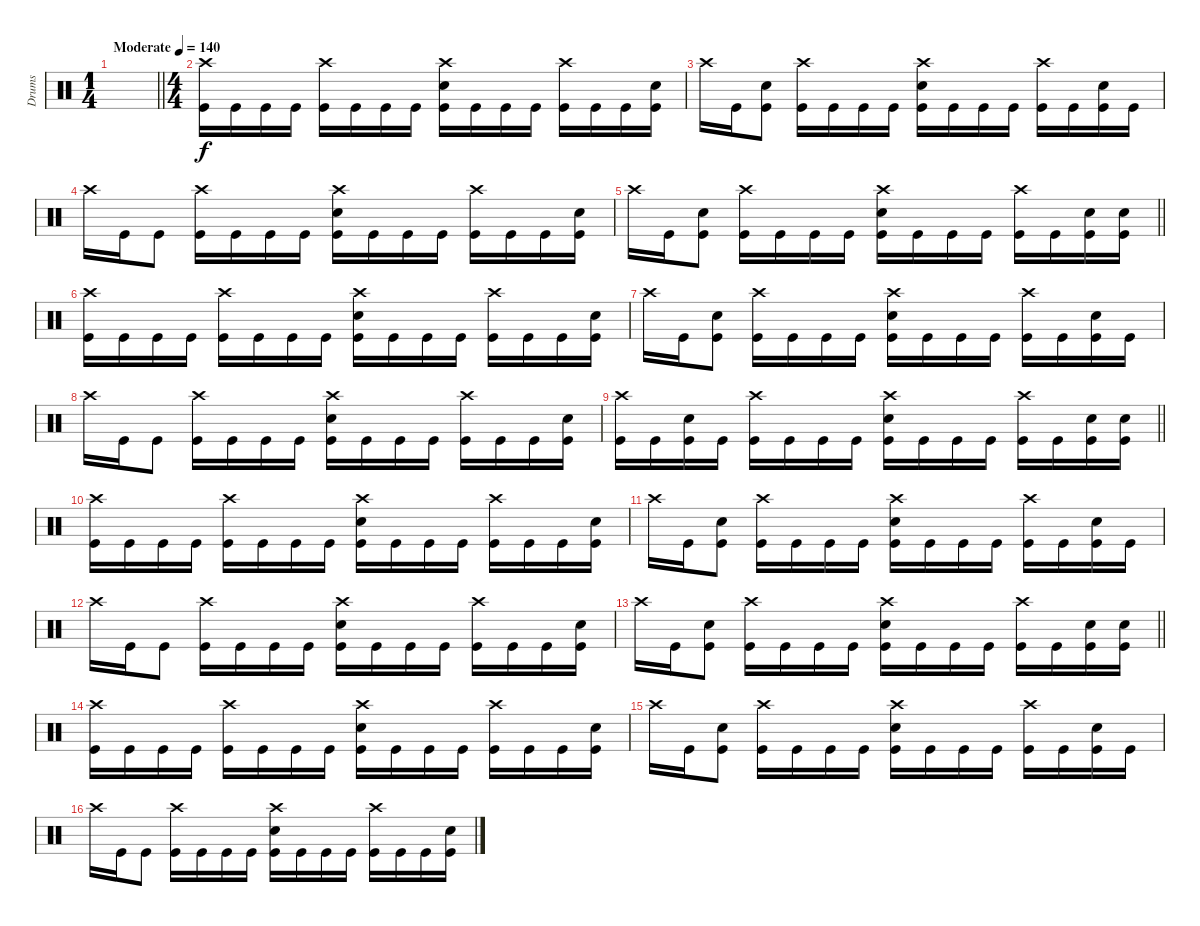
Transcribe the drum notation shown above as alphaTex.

\track ("Drums" "Drums") {instrument percussion}
\staff
\articulation defaults
\ts (1 4)
\tempo (140 "Moderate")
\clef neutral
\barLineRight lightlight
\ks c
|
\ts (4 4)
("Crash high (hit)" "Kick (hit)").16 "Kick (hit)".16 "Kick (hit)".16 "Kick (hit)".16 ("Crash high (hit)" "Kick (hit)").16 "Kick (hit)".16 "Kick (hit)".16 "Kick (hit)".16 ("Crash high (hit)" "Electric Snare (hit)" "Kick (hit)").16 "Kick (hit)".16 "Kick (hit)".16 "Kick (hit)".16 ("Crash high (hit)" "Kick (hit)").16 "Kick (hit)".16 "Kick (hit)".16 ("Electric Snare (hit)" "Kick (hit)").16 |
"Crash high (hit)".16 "Kick (hit)".16 ("Electric Snare (hit)" "Kick (hit)").8 ("Crash high (hit)" "Kick (hit)").16 "Kick (hit)".16 "Kick (hit)".16 "Kick (hit)".16 ("Crash high (hit)" "Electric Snare (hit)" "Kick (hit)").16 "Kick (hit)".16 "Kick (hit)".16 "Kick (hit)".16 ("Crash high (hit)" "Kick (hit)").16 "Kick (hit)".16 ("Electric Snare (hit)" "Kick (hit)").16 "Kick (hit)".16 |
"Crash high (hit)".16 "Kick (hit)".16 "Kick (hit)".8 ("Crash high (hit)" "Kick (hit)").16 "Kick (hit)".16 "Kick (hit)".16 "Kick (hit)".16 ("Crash high (hit)" "Electric Snare (hit)" "Kick (hit)").16 "Kick (hit)".16 "Kick (hit)".16 "Kick (hit)".16 ("Crash high (hit)" "Kick (hit)").16 "Kick (hit)".16 "Kick (hit)".16 ("Electric Snare (hit)" "Kick (hit)").16 |
\barLineRight lightlight "Crash high (hit)".16 "Kick (hit)".16
("Electric Snare (hit)" "Kick (hit)").8 ("Crash high (hit)" "Kick (hit)").16 "Kick (hit)".16 "Kick (hit)".16 "Kick (hit)".16 ("Crash high (hit)" "Electric Snare (hit)" "Kick (hit)").16 "Kick (hit)".16 "Kick (hit)".16 "Kick (hit)".16 ("Crash high (hit)" "Kick (hit)").16 "Kick (hit)".16 ("Electric Snare (hit)" "Kick (hit)").16 ("Electric Snare (hit)" "Kick (hit)").16 |
("Crash high (hit)" "Kick (hit)").16 "Kick (hit)".16 "Kick (hit)".16 "Kick (hit)".16 ("Crash high (hit)" "Kick (hit)").16 "Kick (hit)".16 "Kick (hit)".16 "Kick (hit)".16 ("Crash high (hit)" "Electric Snare (hit)" "Kick (hit)").16 "Kick (hit)".16 "Kick (hit)".16 "Kick (hit)".16 ("Crash high (hit)" "Kick (hit)").16 "Kick (hit)".16 "Kick (hit)".16 ("Electric Snare (hit)" "Kick (hit)").16 |
"Crash high (hit)".16 "Kick (hit)".16 ("Electric Snare (hit)" "Kick (hit)").8 ("Crash high (hit)" "Kick (hit)").16 "Kick (hit)".16 "Kick (hit)".16 "Kick (hit)".16 ("Crash high (hit)" "Electric Snare (hit)" "Kick (hit)").16 "Kick (hit)".16 "Kick (hit)".16 "Kick (hit)".16 ("Crash high (hit)" "Kick (hit)").16 "Kick (hit)".16 ("Electric Snare (hit)" "Kick (hit)").16 "Kick (hit)".16 |
"Crash high (hit)".16 "Kick (hit)".16 "Kick (hit)".8 ("Crash high (hit)" "Kick (hit)").16 "Kick (hit)".16 "Kick (hit)".16 "Kick (hit)".16 ("Crash high (hit)" "Electric Snare (hit)" "Kick (hit)").16 "Kick (hit)".16 "Kick (hit)".16 "Kick (hit)".16 ("Crash high (hit)" "Kick (hit)").16 "Kick (hit)".16 "Kick (hit)".16 ("Electric Snare (hit)" "Kick (hit)").16 |
\barLineRight lightlight
("Crash high (hit)" "Kick (hit)").16 "Kick (hit)".16 ("Electric Snare (hit)" "Kick (hit)").16 "Kick (hit)".16 ("Crash high (hit)" "Kick (hit)").16 "Kick (hit)".16 "Kick (hit)".16 "Kick (hit)".16 ("Crash high (hit)" "Electric Snare (hit)" "Kick (hit)").16 "Kick (hit)".16 "Kick (hit)".16 "Kick (hit)".16 ("Crash high (hit)" "Kick (hit)").16 "Kick (hit)".16 ("Electric Snare (hit)" "Kick (hit)").16 ("Electric Snare (hit)" "Kick (hit)").16 |
("Crash high (hit)" "Kick (hit)").16 "Kick (hit)".16 "Kick (hit)".16 "Kick (hit)".16 ("Crash high (hit)" "Kick (hit)").16 "Kick (hit)".16 "Kick (hit)".16 "Kick (hit)".16 ("Crash high (hit)" "Electric Snare (hit)" "Kick (hit)").16 "Kick (hit)".16 "Kick (hit)".16 "Kick (hit)".16 ("Crash high (hit)" "Kick (hit)").16 "Kick (hit)".16 "Kick (hit)".16 ("Electric Snare (hit)" "Kick (hit)").16 |
"Crash high (hit)".16 "Kick (hit)".16 ("Electric Snare (hit)" "Kick (hit)").8 ("Crash high (hit)" "Kick (hit)").16 "Kick (hit)".16 "Kick (hit)".16 "Kick (hit)".16 ("Crash high (hit)" "Electric Snare (hit)" "Kick (hit)").16 "Kick (hit)".16 "Kick (hit)".16 "Kick (hit)".16 ("Crash high (hit)" "Kick (hit)").16 "Kick (hit)".16 ("Electric Snare (hit)" "Kick (hit)").16 "Kick (hit)".16 |
"Crash high (hit)".16 "Kick (hit)".16 "Kick (hit)".8 ("Crash high (hit)" "Kick (hit)").16 "Kick (hit)".16 "Kick (hit)".16 "Kick (hit)".16 ("Crash high (hit)" "Electric Snare (hit)" "Kick (hit)").16 "Kick (hit)".16 "Kick (hit)".16 "Kick (hit)".16 ("Crash high (hit)" "Kick (hit)").16 "Kick (hit)".16 "Kick (hit)".16 ("Electric Snare (hit)" "Kick (hit)").16 |
\barLineRight lightlight "Crash high (hit)".16 "Kick (hit)".16
("Electric Snare (hit)" "Kick (hit)").8 ("Crash high (hit)" "Kick (hit)").16 "Kick (hit)".16 "Kick (hit)".16 "Kick (hit)".16 ("Crash high (hit)" "Electric Snare (hit)" "Kick (hit)").16 "Kick (hit)".16 "Kick (hit)".16 "Kick (hit)".16 ("Crash high (hit)" "Kick (hit)").16 "Kick (hit)".16 ("Electric Snare (hit)" "Kick (hit)").16 ("Electric Snare (hit)" "Kick (hit)").16 |
("Crash high (hit)" "Kick (hit)").16 "Kick (hit)".16 "Kick (hit)".16 "Kick (hit)".16 ("Crash high (hit)" "Kick (hit)").16 "Kick (hit)".16 "Kick (hit)".16 "Kick (hit)".16 ("Crash high (hit)" "Electric Snare (hit)" "Kick (hit)").16 "Kick (hit)".16 "Kick (hit)".16 "Kick (hit)".16 ("Crash high (hit)" "Kick (hit)").16 "Kick (hit)".16 "Kick (hit)".16 ("Electric Snare (hit)" "Kick (hit)").16 |
"Crash high (hit)".16 "Kick (hit)".16 ("Electric Snare (hit)" "Kick (hit)").8 ("Crash high (hit)" "Kick (hit)").16 "Kick (hit)".16 "Kick (hit)".16 "Kick (hit)".16 ("Crash high (hit)" "Electric Snare (hit)" "Kick (hit)").16 "Kick (hit)".16 "Kick (hit)".16 "Kick (hit)".16 ("Crash high (hit)" "Kick (hit)").16 "Kick (hit)".16 ("Electric Snare (hit)" "Kick (hit)").16 "Kick (hit)".16 |
"Crash high (hit)".16 "Kick (hit)".16 "Kick (hit)".8 ("Crash high (hit)" "Kick (hit)").16 "Kick (hit)".16 "Kick (hit)".16 "Kick (hit)".16 ("Crash high (hit)" "Electric Snare (hit)" "Kick (hit)").16 "Kick (hit)".16 "Kick (hit)".16 "Kick (hit)".16 ("Crash high (hit)" "Kick (hit)").16 "Kick (hit)".16 "Kick (hit)".16 ("Electric Snare (hit)" "Kick (hit)").16
